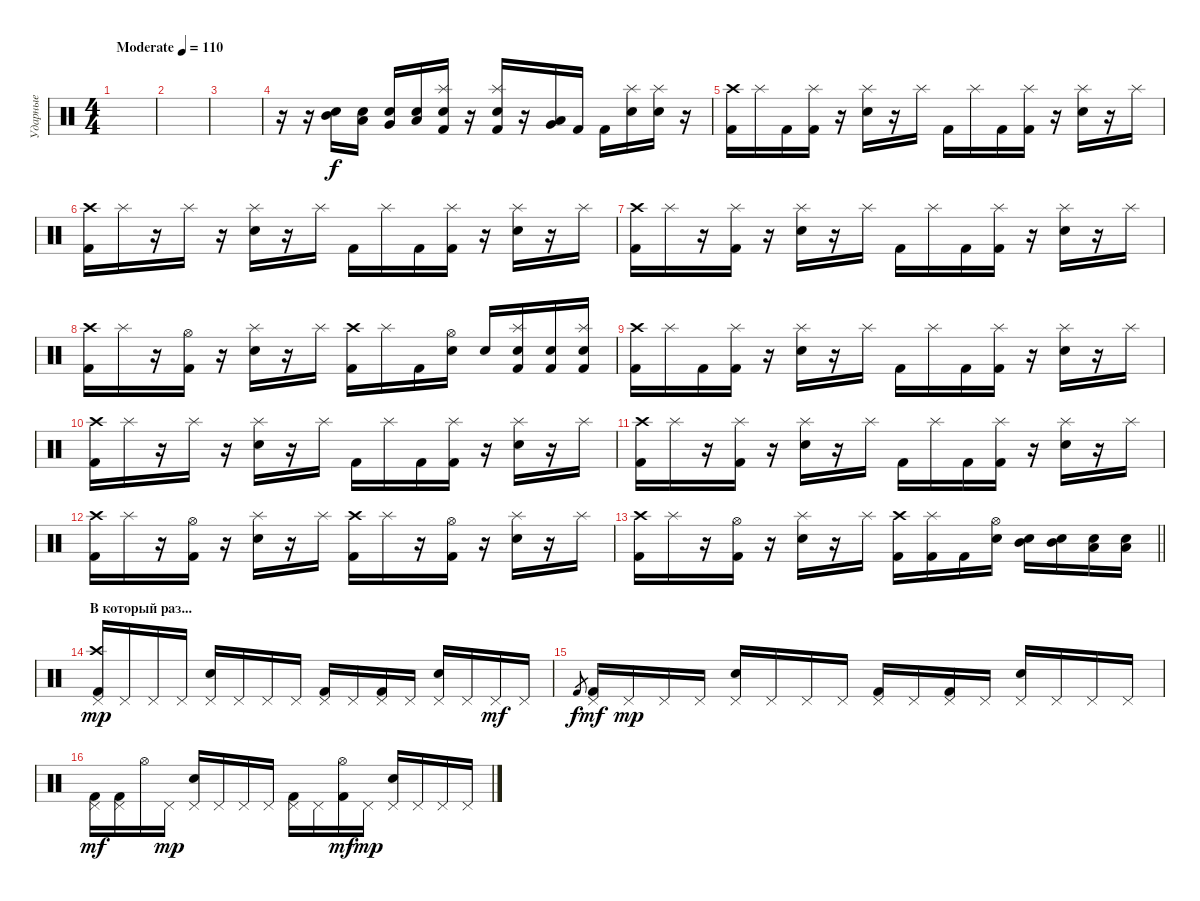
\track ("Ударные" "Ударные") {instrument percussion}
\staff {score}
\articulation defaults
\ts (4 4)
\tempo (110 "Moderate")
\clef neutral
\ks c
|
|
|
r.16 r.16 ("Mid Tom (hit)" "Electric Snare (hit)").16 ("Low Tom (hit)" "Electric Snare (hit)").16 ("Very Low Tom (hit)" "Electric Snare (hit)").16 ("Low Floor Tom (hit)" "Electric Snare (hit)").16 ("Splash (hit)" "Kick (hit) 2" "Electric Snare (hit)").16 r.16 ("Splash (hit)" "Kick (hit) 2" "Electric Snare (hit)").16 r.16 ("Very Low Tom (hit)" "Low Tom (hit)").16 "Kick (hit) 2".16 "Kick (hit) 2".16 ("Splash (hit)" "Electric Snare (hit)").16 ("Splash (hit)" "Electric Snare (hit)").16 r.16 |
("Crash high (hit)" "Kick (hit) 2").16{dy f} "Splash (hit)".16 "Kick (hit) 2".16 ("Splash (hit)" "Kick (hit) 2").16 r.16 ("Splash (hit)" "Electric Snare (hit)").16 r.16 "Splash (hit)".16 "Kick (hit) 2".16 "Splash (hit)".16 "Kick (hit) 2".16 ("Splash (hit)" "Kick (hit) 2").16 r.16 ("Splash (hit)" "Electric Snare (hit)").16 r.16 "Splash (hit)".16 |
("Crash high (hit)" "Kick (hit) 2").16 "Splash (hit)".16 r.16 "Splash (hit)".16 r.16 ("Splash (hit)" "Electric Snare (hit)").16 r.16 "Splash (hit)".16 "Kick (hit) 2".16 "Splash (hit)".16 "Kick (hit) 2".16 ("Splash (hit)" "Kick (hit) 2").16 r.16 ("Splash (hit)" "Electric Snare (hit)").16 r.16 "Splash (hit)".16 |
("Crash high (hit)" "Kick (hit) 2").16 "Splash (hit)".16 r.16 ("Splash (hit)" "Kick (hit) 2").16 r.16 ("Splash (hit)" "Electric Snare (hit)").16 r.16 "Splash (hit)".16 "Kick (hit) 2".16 "Splash (hit)".16 "Kick (hit) 2".16 ("Splash (hit)" "Kick (hit) 2").16 r.16 ("Splash (hit)" "Electric Snare (hit)").16 r.16 "Splash (hit)".16 |
("Crash high (hit)" "Kick (hit) 2").16 "Splash (hit)".16 r.16 ("Hi-Hat (open)" "Kick (hit) 2").16 r.16 ("Splash (hit)" "Electric Snare (hit)").16 r.16 "Splash (hit)".16 ("Crash high (hit)" "Kick (hit) 2").16 "Splash (hit)".16 "Kick (hit) 2".16 ("Hi-Hat (open)" "Electric Snare (hit)").16 "Electric Snare (hit)".16 ("Splash (hit)" "Electric Snare (hit)" "Kick (hit) 2").16 ("Electric Snare (hit)" "Kick (hit) 2").16 ("Splash (hit)" "Electric Snare (hit)" "Kick (hit) 2").16 |
("Crash high (hit)" "Kick (hit) 2").16 "Splash (hit)".16 "Kick (hit) 2".16 ("Splash (hit)" "Kick (hit) 2").16 r.16 ("Splash (hit)" "Electric Snare (hit)").16 r.16 "Splash (hit)".16 "Kick (hit) 2".16 "Splash (hit)".16 "Kick (hit) 2".16 ("Splash (hit)" "Kick (hit) 2").16 r.16 ("Splash (hit)" "Electric Snare (hit)").16 r.16 "Splash (hit)".16 |
("Crash high (hit)" "Kick (hit) 2").16 "Splash (hit)".16 r.16 "Splash (hit)".16 r.16 ("Splash (hit)" "Electric Snare (hit)").16 r.16 "Splash (hit)".16 "Kick (hit) 2".16 "Splash (hit)".16 "Kick (hit) 2".16 ("Splash (hit)" "Kick (hit) 2").16 r.16 ("Splash (hit)" "Electric Snare (hit)").16 r.16 "Splash (hit)".16 |
("Crash high (hit)" "Kick (hit) 2").16 "Splash (hit)".16 r.16 ("Splash (hit)" "Kick (hit) 2").16 r.16 ("Splash (hit)" "Electric Snare (hit)").16 r.16 "Splash (hit)".16 "Kick (hit) 2".16 "Splash (hit)".16 "Kick (hit) 2".16 ("Splash (hit)" "Kick (hit) 2").16 r.16 ("Splash (hit)" "Electric Snare (hit)").16 r.16 "Splash (hit)".16 |
("Crash high (hit)" "Kick (hit) 2").16 "Splash (hit)".16 r.16 ("Hi-Hat (open)" "Kick (hit) 2").16 r.16 ("Splash (hit)" "Electric Snare (hit)").16 r.16 "Splash (hit)".16 ("Crash high (hit)" "Kick (hit) 2").16 "Splash (hit)".16 r.16 ("Hi-Hat (open)" "Kick (hit) 2").16 r.16 ("Splash (hit)" "Electric Snare (hit)").16 r.16 "Splash (hit)".16 |
\barLineRight lightlight
("Crash high (hit)" "Kick (hit) 2").16 "Splash (hit)".16 r.16 ("Hi-Hat (open)" "Kick (hit) 2").16 r.16 ("Splash (hit)" "Electric Snare (hit)").16 r.16 "Splash (hit)".16 ("Crash high (hit)" "Kick (hit) 2").16 ("Splash (hit)" "Kick (hit) 2").16 "Kick (hit) 2".16 ("Hi-Hat (open)" "Electric Snare (hit)").16 ("Mid Tom (hit)" "Electric Snare (hit)").16 ("Mid Tom (hit)" "Electric Snare (hit)").16 ("Low Tom (hit)" "Electric Snare (hit)").16 ("Low Tom (hit)" "Electric Snare (hit)").16 |
\section ("" "В который раз...")
("Pedal Hi-Hat (hit)" "Crash high (hit)" "Kick (hit) 2").16{dy mp} "Pedal Hi-Hat (hit)".16 "Pedal Hi-Hat (hit)".16 "Pedal Hi-Hat (hit)".16 ("Pedal Hi-Hat (hit)" "Electric Snare (hit)").16 "Pedal Hi-Hat (hit)".16 "Pedal Hi-Hat (hit)".16 "Pedal Hi-Hat (hit)".16 ("Pedal Hi-Hat (hit)" "Kick (hit) 2").16 "Pedal Hi-Hat (hit)".16 ("Pedal Hi-Hat (hit)" "Kick (hit) 2").16 "Pedal Hi-Hat (hit)".16 ("Pedal Hi-Hat (hit)" "Electric Snare (hit)").16 "Pedal Hi-Hat (hit)".16 "Pedal Hi-Hat (hit)".16{dy mf} "Pedal Hi-Hat (hit)".16 |
"Kick (hit) 2".8{gr dy f} ("Pedal Hi-Hat (hit)" "Kick (hit) 2").16{dy mf} "Pedal Hi-Hat (hit)".16{dy mp} "Pedal Hi-Hat (hit)".16 "Pedal Hi-Hat (hit)".16 ("Pedal Hi-Hat (hit)" "Electric Snare (hit)").16 "Pedal Hi-Hat (hit)".16 "Pedal Hi-Hat (hit)".16 "Pedal Hi-Hat (hit)".16 ("Pedal Hi-Hat (hit)" "Kick (hit) 2").16 "Pedal Hi-Hat (hit)".16 ("Pedal Hi-Hat (hit)" "Kick (hit) 2").16 "Pedal Hi-Hat (hit)".16 ("Pedal Hi-Hat (hit)" "Electric Snare (hit)").16 "Pedal Hi-Hat (hit)".16 "Pedal Hi-Hat (hit)".16 "Pedal Hi-Hat (hit)".16 |
("Pedal Hi-Hat (hit)" "Kick (hit) 2").16{dy mf} ("Pedal Hi-Hat (hit)" "Kick (hit) 2").16 "Hi-Hat (open)".16 "Pedal Hi-Hat (hit)".16{dy mp} ("Pedal Hi-Hat (hit)" "Electric Snare (hit)").16 "Pedal Hi-Hat (hit)".16 "Pedal Hi-Hat (hit)".16 "Pedal Hi-Hat (hit)".16 ("Pedal Hi-Hat (hit)" "Kick (hit) 2").16 "Pedal Hi-Hat (hit)".16 ("Hi-Hat (open)" "Kick (hit) 2").16{dy mf} "Pedal Hi-Hat (hit)".16{dy mp} ("Pedal Hi-Hat (hit)" "Electric Snare (hit)").16 "Pedal Hi-Hat (hit)".16 "Pedal Hi-Hat (hit)".16 "Pedal Hi-Hat (hit)".16
